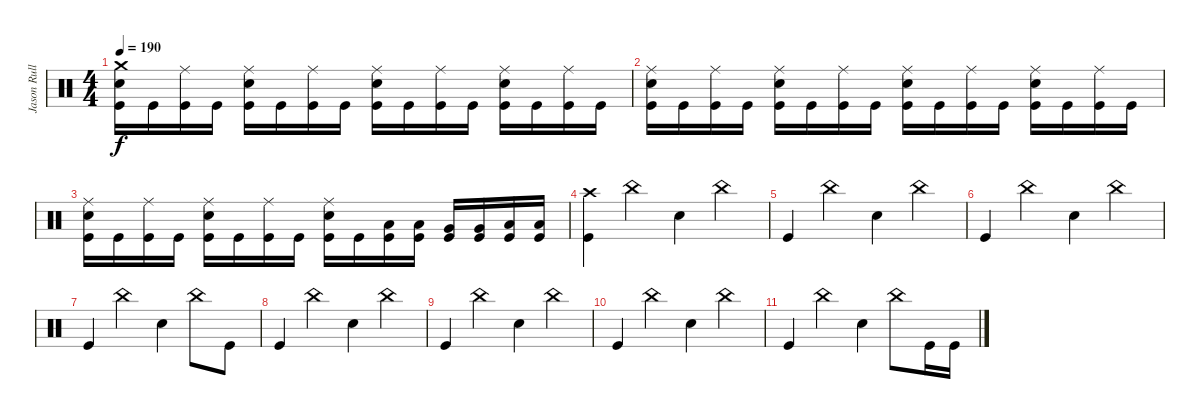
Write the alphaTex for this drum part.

\track ("Jason Rullo - Drums and Percussion" "Jason Rull") {instrument percussion}
\staff {score}
\articulation defaults
\ts (4 4)
\tempo 190
\clef neutral
\ks c
("Snare (hit) 2" "Kick (hit)" "Crash medium (hit)").16{dy f} "Kick (hit)".16 ("Kick (hit)" "Ride (middle)").16 "Kick (hit)".16 ("Snare (hit) 2" "Kick (hit)" "Ride (middle)").16 "Kick (hit)".16 ("Kick (hit)" "Ride (middle)").16 "Kick (hit)".16 ("Snare (hit) 2" "Kick (hit)" "Ride (middle)").16 "Kick (hit)".16 ("Kick (hit)" "Ride (middle)").16 "Kick (hit)".16 ("Snare (hit) 2" "Kick (hit)" "Ride (middle)").16 "Kick (hit)".16 ("Kick (hit)" "Ride (middle)").16 "Kick (hit)".16 |
("Snare (hit) 2" "Kick (hit)" "Ride (middle)").16 "Kick (hit)".16 ("Kick (hit)" "Ride (middle)").16 "Kick (hit)".16 ("Snare (hit) 2" "Kick (hit)" "Ride (middle)").16 "Kick (hit)".16 ("Kick (hit)" "Ride (middle)").16 "Kick (hit)".16 ("Snare (hit) 2" "Kick (hit)" "Ride (middle)").16 "Kick (hit)".16 ("Kick (hit)" "Ride (middle)").16 "Kick (hit)".16 ("Snare (hit) 2" "Kick (hit)" "Ride (middle)").16 "Kick (hit)".16 ("Kick (hit)" "Ride (middle)").16 "Kick (hit)".16 |
("Snare (hit) 2" "Kick (hit)" "Ride (middle)").16 "Kick (hit)".16 ("Kick (hit)" "Ride (middle)").16 "Kick (hit)".16 ("Snare (hit) 2" "Kick (hit)" "Ride (middle)").16 "Kick (hit)".16 ("Kick (hit)" "Ride (middle)").16 "Kick (hit)".16 ("Snare (hit) 2" "Kick (hit)" "Ride (middle)").16 "Kick (hit)".16 ("Kick (hit)" "Low Tom (hit)").16 ("Kick (hit)" "Low Tom (hit)").16 ("Very Low Tom (hit)" "Kick (hit)").16 ("Kick (hit)" "Very Low Tom (hit)").16 ("Kick (hit)" "Low Floor Tom (hit)").16 ("Kick (hit)" "Low Floor Tom (hit)").16 |
("Kick (hit)" "Crash high (hit)").4 "China (hit)".4 "Snare (hit) 2".4 "China (hit)".4 |
"Kick (hit)".4 "China (hit)".4 "Snare (hit) 2".4 "China (hit)".4 |
"Kick (hit)".4 "China (hit)".4 "Snare (hit) 2".4 "China (hit)".4 |
"Kick (hit)".4 "China (hit)".4 "Snare (hit) 2".4 "China (hit)".8 "Kick (hit)".8 |
"Kick (hit)".4 "China (hit)".4 "Snare (hit) 2".4 "China (hit)".4 |
"Kick (hit)".4 "China (hit)".4 "Snare (hit) 2".4 "China (hit)".4 |
"Kick (hit)".4 "China (hit)".4 "Snare (hit) 2".4 "China (hit)".4 |
"Kick (hit)".4 "China (hit)".4 "Snare (hit) 2".4 "China (hit)".8 "Kick (hit)".16 "Kick (hit)".16
